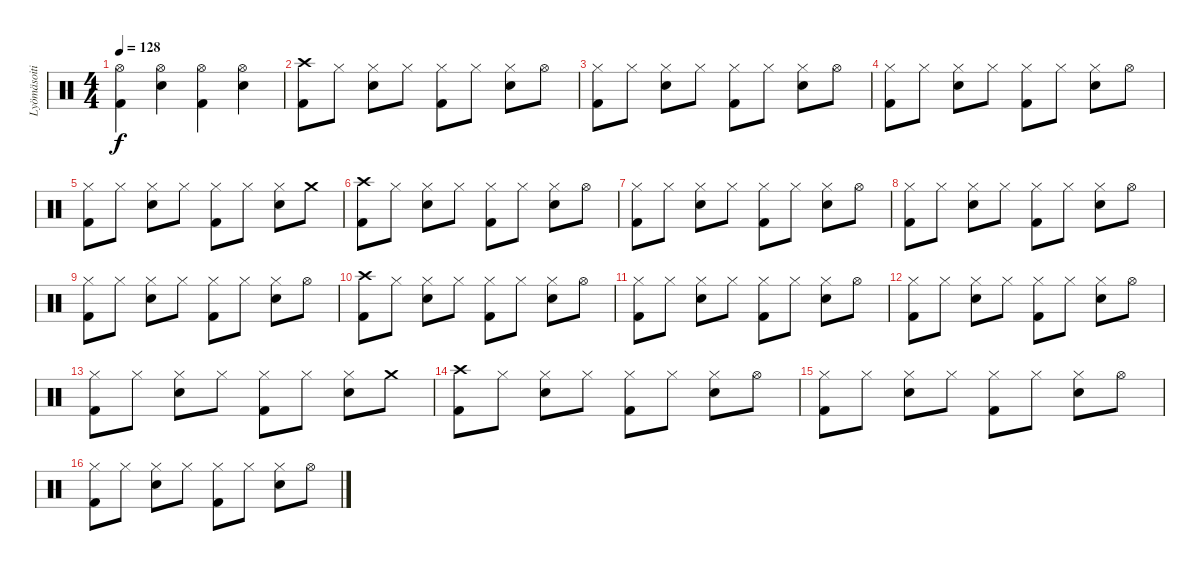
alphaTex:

\track ("Lyömäsoitin" "Lyömäsoiti") {instrument percussion}
\staff {score}
\articulation defaults
\ts (4 4)
\tempo 128
\clef neutral
\ks c
("Hi-Hat (open)" "Kick (hit) 2").4{dy f} ("Hi-Hat (open)" "Electric Snare (hit)").4 ("Hi-Hat (open)" "Kick (hit) 2").4 ("Hi-Hat (open)" "Electric Snare (hit)").4 |
("Crash high (hit)" "Kick (hit) 2").8 "Hi-Hat (closed)".8 ("Hi-Hat (closed)" "Electric Snare (hit)").8 "Hi-Hat (closed)".8 ("Hi-Hat (closed)" "Kick (hit) 2").8 "Hi-Hat (closed)".8 ("Hi-Hat (closed)" "Electric Snare (hit)").8 "Hi-Hat (open)".8 |
("Hi-Hat (closed)" "Kick (hit) 2").8 "Hi-Hat (closed)".8 ("Hi-Hat (closed)" "Electric Snare (hit)").8 "Hi-Hat (closed)".8 ("Hi-Hat (closed)" "Kick (hit) 2").8 "Hi-Hat (closed)".8 ("Hi-Hat (closed)" "Electric Snare (hit)").8 "Hi-Hat (open)".8 |
("Hi-Hat (closed)" "Kick (hit) 2").8 "Hi-Hat (closed)".8 ("Hi-Hat (closed)" "Electric Snare (hit)").8 "Hi-Hat (closed)".8 ("Hi-Hat (closed)" "Kick (hit) 2").8 "Hi-Hat (closed)".8 ("Hi-Hat (closed)" "Electric Snare (hit)").8 "Hi-Hat (open)".8 |
("Hi-Hat (closed)" "Kick (hit) 2").8 "Hi-Hat (closed)".8 ("Hi-Hat (closed)" "Electric Snare (hit)").8 "Hi-Hat (closed)".8 ("Hi-Hat (closed)" "Kick (hit) 2").8 "Hi-Hat (closed)".8 ("Hi-Hat (closed)" "Electric Snare (hit)").8 "Crash medium (hit)".8 |
("Crash high (hit)" "Kick (hit) 2").8 "Hi-Hat (closed)".8 ("Hi-Hat (closed)" "Electric Snare (hit)").8 "Hi-Hat (closed)".8 ("Hi-Hat (closed)" "Kick (hit) 2").8 "Hi-Hat (closed)".8 ("Hi-Hat (closed)" "Electric Snare (hit)").8 "Hi-Hat (open)".8 |
("Hi-Hat (closed)" "Kick (hit) 2").8 "Hi-Hat (closed)".8 ("Hi-Hat (closed)" "Electric Snare (hit)").8 "Hi-Hat (closed)".8 ("Hi-Hat (closed)" "Kick (hit) 2").8 "Hi-Hat (closed)".8 ("Hi-Hat (closed)" "Electric Snare (hit)").8 "Hi-Hat (open)".8 |
("Hi-Hat (closed)" "Kick (hit) 2").8 "Hi-Hat (closed)".8 ("Hi-Hat (closed)" "Electric Snare (hit)").8 "Hi-Hat (closed)".8 ("Hi-Hat (closed)" "Kick (hit) 2").8 "Hi-Hat (closed)".8 ("Hi-Hat (closed)" "Electric Snare (hit)").8 "Hi-Hat (open)".8 |
("Hi-Hat (closed)" "Kick (hit) 2").8 "Hi-Hat (closed)".8 ("Hi-Hat (closed)" "Electric Snare (hit)").8 "Hi-Hat (closed)".8 ("Hi-Hat (closed)" "Kick (hit) 2").8 "Hi-Hat (closed)".8 ("Hi-Hat (closed)" "Electric Snare (hit)").8 "Hi-Hat (open)".8 |
("Crash high (hit)" "Kick (hit) 2").8 "Hi-Hat (closed)".8 ("Hi-Hat (closed)" "Electric Snare (hit)").8 "Hi-Hat (closed)".8 ("Hi-Hat (closed)" "Kick (hit) 2").8 "Hi-Hat (closed)".8 ("Hi-Hat (closed)" "Electric Snare (hit)").8 "Hi-Hat (open)".8 |
("Hi-Hat (closed)" "Kick (hit) 2").8 "Hi-Hat (closed)".8 ("Hi-Hat (closed)" "Electric Snare (hit)").8 "Hi-Hat (closed)".8 ("Hi-Hat (closed)" "Kick (hit) 2").8 "Hi-Hat (closed)".8 ("Hi-Hat (closed)" "Electric Snare (hit)").8 "Hi-Hat (open)".8 |
("Hi-Hat (closed)" "Kick (hit) 2").8 "Hi-Hat (closed)".8 ("Hi-Hat (closed)" "Electric Snare (hit)").8 "Hi-Hat (closed)".8 ("Hi-Hat (closed)" "Kick (hit) 2").8 "Hi-Hat (closed)".8 ("Hi-Hat (closed)" "Electric Snare (hit)").8 "Hi-Hat (open)".8 |
("Hi-Hat (closed)" "Kick (hit) 2").8 "Hi-Hat (closed)".8 ("Hi-Hat (closed)" "Electric Snare (hit)").8 "Hi-Hat (closed)".8 ("Hi-Hat (closed)" "Kick (hit) 2").8 "Hi-Hat (closed)".8 ("Hi-Hat (closed)" "Electric Snare (hit)").8 "Crash medium (hit)".8 |
("Crash high (hit)" "Kick (hit) 2").8 "Hi-Hat (closed)".8 ("Hi-Hat (closed)" "Electric Snare (hit)").8 "Hi-Hat (closed)".8 ("Hi-Hat (closed)" "Kick (hit) 2").8 "Hi-Hat (closed)".8 ("Hi-Hat (closed)" "Electric Snare (hit)").8 "Hi-Hat (open)".8 |
("Hi-Hat (closed)" "Kick (hit) 2").8 "Hi-Hat (closed)".8 ("Hi-Hat (closed)" "Electric Snare (hit)").8 "Hi-Hat (closed)".8 ("Hi-Hat (closed)" "Kick (hit) 2").8 "Hi-Hat (closed)".8 ("Hi-Hat (closed)" "Electric Snare (hit)").8 "Hi-Hat (open)".8 |
("Hi-Hat (closed)" "Kick (hit) 2").8 "Hi-Hat (closed)".8 ("Hi-Hat (closed)" "Electric Snare (hit)").8 "Hi-Hat (closed)".8 ("Hi-Hat (closed)" "Kick (hit) 2").8 "Hi-Hat (closed)".8 ("Hi-Hat (closed)" "Electric Snare (hit)").8 "Hi-Hat (open)".8
